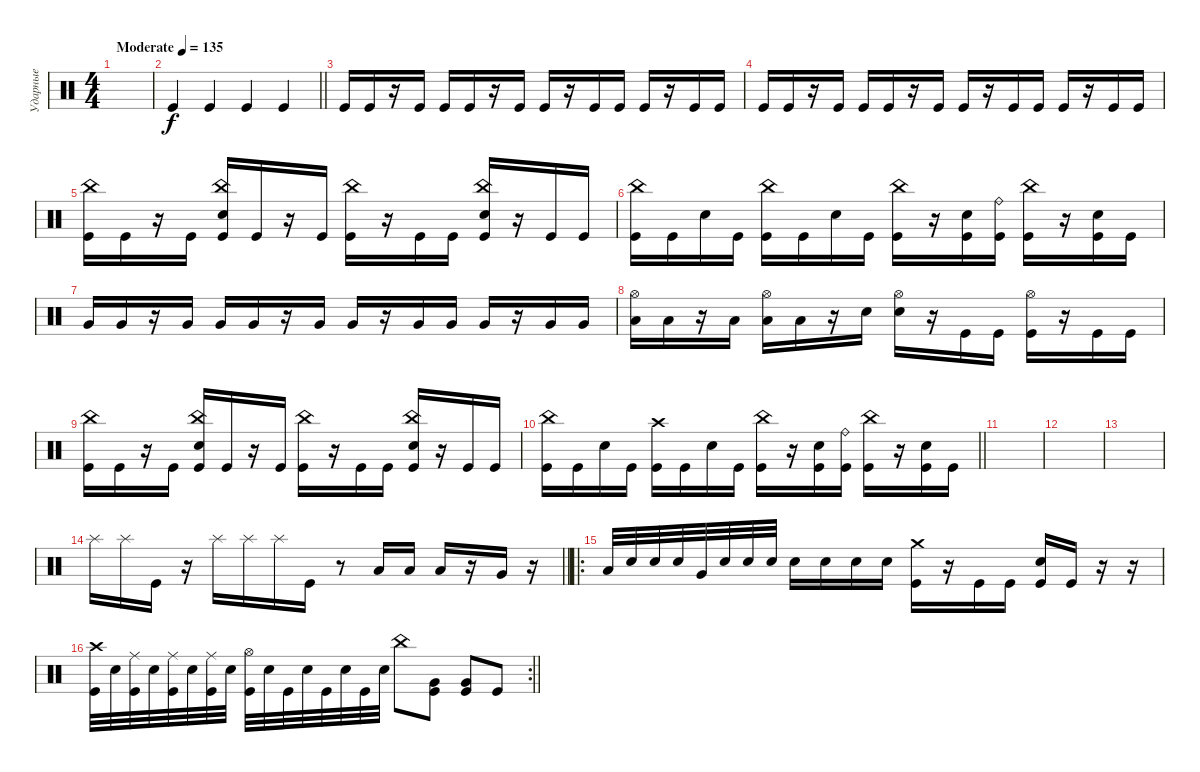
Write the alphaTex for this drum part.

\track ("Ударные" "Ударные") {instrument percussion}
\staff {score}
\articulation defaults
\ts (4 4)
\tempo (135 "Moderate")
\clef neutral
\ks c
|
\barLineRight lightlight "Kick (hit)".4 "Kick (hit)".4 "Kick (hit)".4 "Kick (hit)".4
|
\section ("" " ")
"Kick (hit)".16 "Kick (hit)".16 r.16 "Kick (hit)".16 "Kick (hit)".16 "Kick (hit)".16 r.16 "Kick (hit)".16 "Kick (hit)".16 r.16 "Kick (hit)".16 "Kick (hit)".16 "Kick (hit)".16 r.16 "Kick (hit)".16 "Kick (hit)".16 |
"Kick (hit)".16 "Kick (hit)".16 r.16 "Kick (hit)".16 "Kick (hit)".16 "Kick (hit)".16 r.16 "Kick (hit)".16 "Kick (hit)".16 r.16 "Kick (hit)".16 "Kick (hit)".16 "Kick (hit)".16 r.16 "Kick (hit)".16 "Kick (hit)".16 |
("China (hit)" "Kick (hit)").16 "Kick (hit)".16 r.16 "Kick (hit)".16 ("China (hit)" "Electric Snare (hit)" "Kick (hit)").16 "Kick (hit)".16 r.16 "Kick (hit)".16 ("China (hit)" "Kick (hit)").16 r.16 "Kick (hit)".16 "Kick (hit)".16 ("China (hit)" "Electric Snare (hit)" "Kick (hit)").16 r.16 "Kick (hit)".16 "Kick (hit)".16 |
("China (hit)" "Kick (hit)").16 "Kick (hit)".16 "Electric Snare (hit)".16 "Kick (hit)".16 ("China (hit)" "Kick (hit)").16 "Kick (hit)".16 "Electric Snare (hit)".16 "Kick (hit)".16 ("China (hit)" "Kick (hit)").16 r.16 ("Electric Snare (hit)" "Kick (hit)").16 ("Ride (bell)" "Kick (hit)").16 ("China (hit)" "Kick (hit)").16 r.16 ("Electric Snare (hit)" "Kick (hit)").16 "Kick (hit)".16 |
"Very Low Tom (hit)".16 "Very Low Tom (hit)".16 r.16 "Very Low Tom (hit)".16 "Very Low Tom (hit)".16 "Very Low Tom (hit)".16 r.16 "Very Low Tom (hit)".16 "Very Low Tom (hit)".16 r.16 "Very Low Tom (hit)".16 "Very Low Tom (hit)".16 "Very Low Tom (hit)".16 r.16 "Very Low Tom (hit)".16 "Very Low Tom (hit)".16 |
("Hi-Hat (open)" "Low Floor Tom (hit)").16 "Low Floor Tom (hit)".16 r.16 "Low Floor Tom (hit)".16 ("Hi-Hat (open)" "Low Floor Tom (hit)").16 "Low Floor Tom (hit)".16 r.16 "Electric Snare (hit)".16 ("Hi-Hat (open)" "Electric Snare (hit)").16 r.16 "Kick (hit)".16 "Kick (hit)".16 ("Hi-Hat (open)" "Kick (hit)").16 r.16 "Kick (hit)".16 "Kick (hit)".16 |
("China (hit)" "Kick (hit)").16 "Kick (hit)".16 r.16 "Kick (hit)".16 ("China (hit)" "Electric Snare (hit)" "Kick (hit)").16 "Kick (hit)".16 r.16 "Kick (hit)".16 ("China (hit)" "Kick (hit)").16 r.16 "Kick (hit)".16 "Kick (hit)".16 ("China (hit)" "Electric Snare (hit)" "Kick (hit)").16 r.16 "Kick (hit)".16 "Kick (hit)".16 |
\barLineRight lightlight
("China (hit)" "Kick (hit)").16 "Kick (hit)".16 "Electric Snare (hit)".16 "Kick (hit)".16 ("Crash high (hit)" "Kick (hit)").16 "Kick (hit)".16 "Electric Snare (hit)".16 "Kick (hit)".16 ("China (hit)" "Kick (hit)").16 r.16 ("Electric Snare (hit)" "Kick (hit)").16 ("Ride (bell)" "Kick (hit)").16 ("China (hit)" "Kick (hit)").16 r.16 ("Electric Snare (hit)" "Kick (hit)").16 "Kick (hit)".16 |
\section ("" " ")
|
|
|
\barLineRight lightlight "Splash (hit)".16 "Splash (hit)".16 "Kick (hit)".16
r.16 "Splash (hit)".16 "Splash (hit)".16 "Splash (hit)".16 "Kick (hit)".16 r.8 "Low Tom (hit)".16 "Low Tom (hit)".16 "Low Tom (hit)".16 r.16 "Very Low Tom (hit)".16 r.16 |
\ro
\section ("" " ")
"Low Tom (hit)".32 "Electric Snare (hit)".32 "Electric Snare (hit)".32 "Electric Snare (hit)".32 "Very Low Tom (hit)".32 "Electric Snare (hit)".32 "Electric Snare (hit)".32 "Electric Snare (hit)".32 "Electric Snare (hit)".16 "Electric Snare (hit)".16 "Electric Snare (hit)".16 "Electric Snare (hit)".16 ("Crash medium (hit)" "Kick (hit)").16 r.16 "Kick (hit)".16 "Kick (hit)".16 ("Electric Snare (hit)" "Kick (hit)").16 "Kick (hit)".16 r.16 r.16 |
\rc 2
\barLineRight lightlight
("Crash high (hit)" "Kick (hit)").32 "Electric Snare (hit)".32 ("Ride (middle)" "Kick (hit)").32 "Electric Snare (hit)".32 ("Ride (middle)" "Kick (hit)").32 "Electric Snare (hit)".32 ("Ride (middle)" "Kick (hit)").32 "Electric Snare (hit)".32 ("Hi-Hat (open)" "Kick (hit)").32 "Electric Snare (hit)".32 "Kick (hit)".32 "Electric Snare (hit)".32 "Kick (hit)".32 "Electric Snare (hit)".32 "Kick (hit)".32 "Electric Snare (hit)".32 "China (hit)".8 ("Very Low Tom (hit)" "Kick (hit)").8 ("Very Low Tom (hit)" "Kick (hit)").8 "Kick (hit)".8
